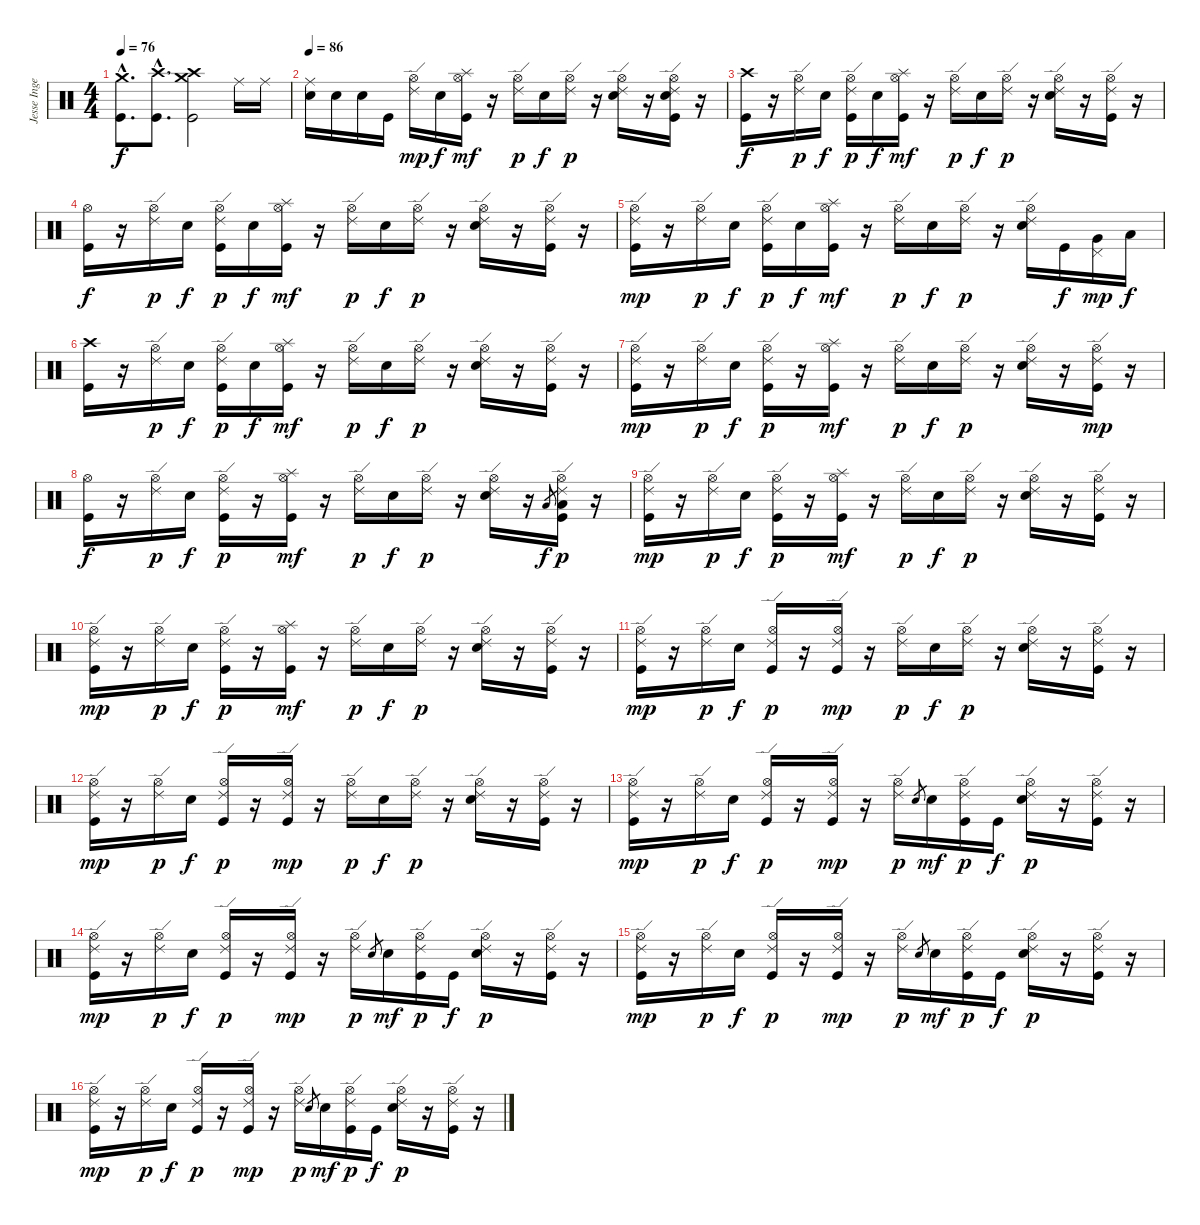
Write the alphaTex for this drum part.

\track ("Jesse Ingelevics" "Jesse Inge") {instrument percussion}
\staff {score}
\articulation defaults
\ts (4 4)
\tempo 76
\clef neutral
\ks c
("Crash medium (hit)"{hac} "Kick (hit)"{hac}).8{d dy f} ("Crash high (hit)"{hac} "Kick (hit)"{hac}).8{d} ("Crash medium (hit)" "Crash high (hit)" "Kick (hit)").2 "Ride (middle)".16 "Ride (middle)".16 |
\tempo 86
("Ride (middle)" "Electric Snare (hit)").16 "Electric Snare (hit)".16 "Electric Snare (hit)".16 "Kick (hit)".16 ("Hi-Hat (open)" "Ride (edge) 2").16{dy mp} "Snare (hit) 2".16{dy f} ("Hi-Hat (open)" "Splash (hit)" "Kick (hit)").16{dy mf} r.16 ("Hi-Hat (open)" "Ride (edge) 2").16{dy p} "Snare (hit) 2".16{dy f} ("Hi-Hat (open)" "Ride (edge) 2").16{dy p} r.16 ("Hi-Hat (open)" "Ride (edge) 2" "Snare (hit) 2").16 r.16 ("Hi-Hat (open)" "Ride (edge) 2" "Snare (hit) 2" "Kick (hit)").16 r.16 |
("Crash high (hit)" "Kick (hit)").16{dy f} r.16 ("Hi-Hat (open)" "Ride (edge) 2").16{dy p} "Snare (hit) 2".16{dy f} ("Hi-Hat (open)" "Ride (edge) 2" "Kick (hit)").16{dy p} "Snare (hit) 2".16{dy f} ("Hi-Hat (open)" "Splash (hit)" "Kick (hit)").16{dy mf} r.16 ("Hi-Hat (open)" "Ride (edge) 2").16{dy p} "Snare (hit) 2".16{dy f} ("Hi-Hat (open)" "Ride (edge) 2").16{dy p} r.16 ("Hi-Hat (open)" "Ride (edge) 2" "Snare (hit) 2").16 r.16 ("Hi-Hat (open)" "Ride (edge) 2" "Kick (hit)").16 r.16 |
("Hi-Hat (open)" "Kick (hit)").16{dy f} r.16 ("Hi-Hat (open)" "Ride (edge) 2").16{dy p} "Snare (hit) 2".16{dy f} ("Hi-Hat (open)" "Ride (edge) 2" "Kick (hit)").16{dy p} "Snare (hit) 2".16{dy f} ("Hi-Hat (open)" "Splash (hit)" "Kick (hit)").16{dy mf} r.16 ("Hi-Hat (open)" "Ride (edge) 2").16{dy p} "Snare (hit) 2".16{dy f} ("Hi-Hat (open)" "Ride (edge) 2").16{dy p} r.16 ("Hi-Hat (open)" "Ride (edge) 2" "Snare (hit) 2").16 r.16 ("Hi-Hat (open)" "Ride (edge) 2" "Kick (hit)").16 r.16 |
("Hi-Hat (open)" "Ride (edge) 2" "Kick (hit)").16{dy mp} r.16 ("Hi-Hat (open)" "Ride (edge) 2").16{dy p} "Snare (hit) 2".16{dy f} ("Hi-Hat (open)" "Ride (edge) 2" "Kick (hit)").16{dy p} "Snare (hit) 2".16{dy f} ("Hi-Hat (open)" "Splash (hit)" "Kick (hit)").16{dy mf} r.16 ("Hi-Hat (open)" "Ride (edge) 2").16{dy p} "Snare (hit) 2".16{dy f} ("Hi-Hat (open)" "Ride (edge) 2").16{dy p} r.16 ("Hi-Hat (open)" "Ride (edge) 2" "Snare (hit) 2").16 "Kick (hit)".16{dy f} ("Pedal Hi-Hat (hit)" "Very Low Tom (hit)").16{dy mp} "Low Tom (hit)".16{dy f} |
("Crash high (hit)" "Kick (hit)").16 r.16 ("Hi-Hat (open)" "Ride (edge) 2").16{dy p} "Snare (hit) 2".16{dy f} ("Hi-Hat (open)" "Ride (edge) 2" "Kick (hit)").16{dy p} "Snare (hit) 2".16{dy f} ("Hi-Hat (open)" "Splash (hit)" "Kick (hit)").16{dy mf} r.16 ("Hi-Hat (open)" "Ride (edge) 2").16{dy p} "Snare (hit) 2".16{dy f} ("Hi-Hat (open)" "Ride (edge) 2").16{dy p} r.16 ("Hi-Hat (open)" "Ride (edge) 2" "Snare (hit) 2").16 r.16 ("Hi-Hat (open)" "Ride (edge) 2" "Kick (hit)").16 r.16 |
("Hi-Hat (open)" "Ride (edge) 2" "Kick (hit)").16{dy mp} r.16 ("Hi-Hat (open)" "Ride (edge) 2").16{dy p} "Snare (hit) 2".16{dy f} ("Hi-Hat (open)" "Ride (edge) 2" "Kick (hit)").16{dy p} r.16 ("Hi-Hat (open)" "Splash (hit)" "Kick (hit)").16{dy mf} r.16 ("Hi-Hat (open)" "Ride (edge) 2").16{dy p} "Snare (hit) 2".16{dy f} ("Hi-Hat (open)" "Ride (edge) 2").16{dy p} r.16 ("Hi-Hat (open)" "Ride (edge) 2" "Snare (hit) 2").16 r.16 ("Hi-Hat (open)" "Ride (edge) 2" "Kick (hit)").16{dy mp} r.16 |
("Hi-Hat (open)" "Kick (hit)").16{dy f} r.16 ("Hi-Hat (open)" "Ride (edge) 2").16{dy p} "Snare (hit) 2".16{dy f} ("Hi-Hat (open)" "Ride (edge) 2" "Kick (hit)").16{dy p} r.16 ("Hi-Hat (open)" "Splash (hit)" "Kick (hit)").16{dy mf} r.16 ("Hi-Hat (open)" "Ride (edge) 2").16{dy p} "Snare (hit) 2".16{dy f} ("Hi-Hat (open)" "Ride (edge) 2").16{dy p} r.16 ("Hi-Hat (open)" "Ride (edge) 2" "Snare (hit) 2").16 r.16 "Low Tom (hit)".8{gr dy f} ("Hi-Hat (open)" "Ride (edge) 2" "Low Tom (hit)" "Kick (hit)").16{dy p} r.16 |
("Hi-Hat (open)" "Ride (edge) 2" "Kick (hit)").16{dy mp} r.16 ("Hi-Hat (open)" "Ride (edge) 2").16{dy p} "Snare (hit) 2".16{dy f} ("Hi-Hat (open)" "Ride (edge) 2" "Kick (hit)").16{dy p} r.16 ("Hi-Hat (open)" "Splash (hit)" "Kick (hit)").16{dy mf} r.16 ("Hi-Hat (open)" "Ride (edge) 2").16{dy p} "Snare (hit) 2".16{dy f} ("Hi-Hat (open)" "Ride (edge) 2").16{dy p} r.16 ("Hi-Hat (open)" "Ride (edge) 2" "Snare (hit) 2").16 r.16 ("Hi-Hat (open)" "Ride (edge) 2" "Kick (hit)").16 r.16 |
("Hi-Hat (open)" "Ride (edge) 2" "Kick (hit)").16{dy mp} r.16 ("Hi-Hat (open)" "Ride (edge) 2").16{dy p} "Snare (hit) 2".16{dy f} ("Hi-Hat (open)" "Ride (edge) 2" "Kick (hit)").16{dy p} r.16 ("Hi-Hat (open)" "Splash (hit)" "Kick (hit)").16{dy mf} r.16 ("Hi-Hat (open)" "Ride (edge) 2").16{dy p} "Snare (hit) 2".16{dy f} ("Hi-Hat (open)" "Ride (edge) 2").16{dy p} r.16 ("Hi-Hat (open)" "Ride (edge) 2" "Snare (hit) 2").16 r.16 ("Hi-Hat (open)" "Ride (edge) 2" "Kick (hit)").16 r.16 |
("Hi-Hat (open)" "Ride (edge) 2" "Kick (hit)").16{dy mp} r.16 ("Hi-Hat (open)" "Ride (edge) 2").16{dy p} "Snare (hit) 2".16{dy f} ("Hi-Hat (open)" "Ride (edge) 2" "Kick (hit)").16{dy p} r.16 ("Hi-Hat (open)" "Ride (edge) 2" "Kick (hit)").16{dy mp} r.16 ("Hi-Hat (open)" "Ride (edge) 2").16{dy p} "Snare (hit) 2".16{dy f} ("Hi-Hat (open)" "Ride (edge) 2").16{dy p} r.16 ("Hi-Hat (open)" "Ride (edge) 2" "Snare (hit) 2").16 r.16 ("Hi-Hat (open)" "Ride (edge) 2" "Kick (hit)").16 r.16 |
("Hi-Hat (open)" "Ride (edge) 2" "Kick (hit)").16{dy mp} r.16 ("Hi-Hat (open)" "Ride (edge) 2").16{dy p} "Snare (hit) 2".16{dy f} ("Hi-Hat (open)" "Ride (edge) 2" "Kick (hit)").16{dy p} r.16 ("Hi-Hat (open)" "Ride (edge) 2" "Kick (hit)").16{dy mp} r.16 ("Hi-Hat (open)" "Ride (edge) 2").16{dy p} "Snare (hit) 2".16{dy f} ("Hi-Hat (open)" "Ride (edge) 2").16{dy p} r.16 ("Hi-Hat (open)" "Ride (edge) 2" "Snare (hit) 2").16 r.16 ("Hi-Hat (open)" "Ride (edge) 2" "Kick (hit)").16 r.16 |
("Hi-Hat (open)" "Ride (edge) 2" "Kick (hit)").16{dy mp} r.16 ("Hi-Hat (open)" "Ride (edge) 2").16{dy p} "Snare (hit) 2".16{dy f} ("Hi-Hat (open)" "Ride (edge) 2" "Kick (hit)").16{dy p} r.16 ("Hi-Hat (open)" "Ride (edge) 2" "Kick (hit)").16{dy mp} r.16 ("Hi-Hat (open)" "Ride (edge) 2").16{dy p} "Snare (hit) 2".8{gr} "Snare (hit) 2".16{dy mf} ("Hi-Hat (open)" "Ride (edge) 2" "Kick (hit)").16{dy p} "Kick (hit)".16{dy f} ("Hi-Hat (open)" "Ride (edge) 2" "Snare (hit) 2").16{dy p} r.16 ("Hi-Hat (open)" "Ride (edge) 2" "Kick (hit)").16 r.16 |
("Hi-Hat (open)" "Ride (edge) 2" "Kick (hit)").16{dy mp} r.16 ("Hi-Hat (open)" "Ride (edge) 2").16{dy p} "Snare (hit) 2".16{dy f} ("Hi-Hat (open)" "Ride (edge) 2" "Kick (hit)").16{dy p} r.16 ("Hi-Hat (open)" "Ride (edge) 2" "Kick (hit)").16{dy mp} r.16 ("Hi-Hat (open)" "Ride (edge) 2").16{dy p} "Snare (hit) 2".8{gr} "Snare (hit) 2".16{dy mf} ("Hi-Hat (open)" "Ride (edge) 2" "Kick (hit)").16{dy p} "Kick (hit)".16{dy f} ("Hi-Hat (open)" "Ride (edge) 2" "Snare (hit) 2").16{dy p} r.16 ("Hi-Hat (open)" "Ride (edge) 2" "Kick (hit)").16 r.16 |
("Hi-Hat (open)" "Ride (edge) 2" "Kick (hit)").16{dy mp} r.16 ("Hi-Hat (open)" "Ride (edge) 2").16{dy p} "Snare (hit) 2".16{dy f} ("Hi-Hat (open)" "Ride (edge) 2" "Kick (hit)").16{dy p} r.16 ("Hi-Hat (open)" "Ride (edge) 2" "Kick (hit)").16{dy mp} r.16 ("Hi-Hat (open)" "Ride (edge) 2").16{dy p} "Snare (hit) 2".8{gr} "Snare (hit) 2".16{dy mf} ("Hi-Hat (open)" "Ride (edge) 2" "Kick (hit)").16{dy p} "Kick (hit)".16{dy f} ("Hi-Hat (open)" "Ride (edge) 2" "Snare (hit) 2").16{dy p} r.16 ("Hi-Hat (open)" "Ride (edge) 2" "Kick (hit)").16 r.16 |
("Hi-Hat (open)" "Ride (edge) 2" "Kick (hit)").16{dy mp} r.16 ("Hi-Hat (open)" "Ride (edge) 2").16{dy p} "Snare (hit) 2".16{dy f} ("Hi-Hat (open)" "Ride (edge) 2" "Kick (hit)").16{dy p} r.16 ("Hi-Hat (open)" "Ride (edge) 2" "Kick (hit)").16{dy mp} r.16 ("Hi-Hat (open)" "Ride (edge) 2").16{dy p} "Snare (hit) 2".8{gr} "Snare (hit) 2".16{dy mf} ("Hi-Hat (open)" "Ride (edge) 2" "Kick (hit)").16{dy p} "Kick (hit)".16{dy f} ("Hi-Hat (open)" "Ride (edge) 2" "Snare (hit) 2").16{dy p} r.16 ("Hi-Hat (open)" "Ride (edge) 2" "Kick (hit)").16 r.16
